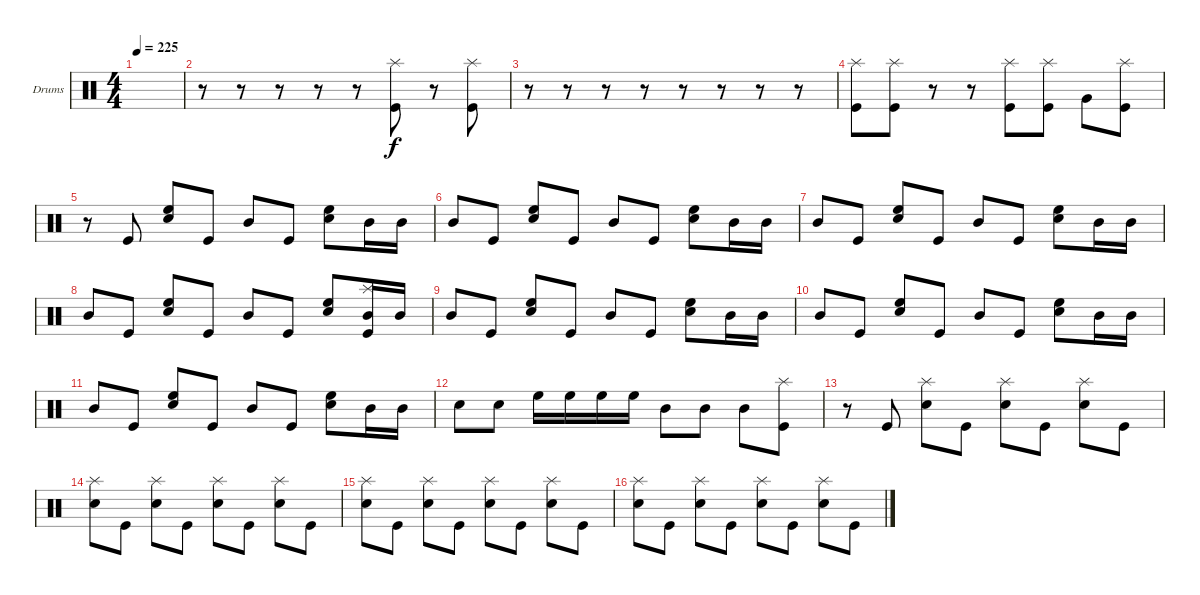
\bracketExtendMode groupsimilarinstruments
\firstSystemTrackNameOrientation horizontal
\otherSystemsTrackNameOrientation horizontal
\track ("Drumkit" "Drums") {instrument percussion}
\staff {score}
\articulation defaults
\ts (4 4)
\tempo 225
\clef neutral
\ks c
|
r.8 r.8 r.8 r.8 r.8 ("Kick (hit)" "Splash (hit)").8 r.8 ("Kick (hit)" "Splash (hit)").8 |
r.8 r.8 r.8 r.8 r.8 r.8 r.8 r.8 |
("Kick (hit)" "Splash (hit)").8 ("Kick (hit)" "Splash (hit)").8 r.8 r.8 ("Kick (hit)" "Splash (hit)").8 ("Kick (hit)" "Splash (hit)").8 "Very Low Tom (hit)".8 ("Kick (hit)" "Splash (hit)").8 |
r.8 "Kick (hit)".8 ("Snare (hit) 2" "High Floor Tom (hit)").8 "Kick (hit)".8 "Mid Tom (hit)".8 "Kick (hit)".8 ("Snare (hit) 2" "High Floor Tom (hit)").8 "Mid Tom (hit)".16 "Mid Tom (hit)".16 |
"Mid Tom (hit)".8 "Kick (hit)".8 ("Snare (hit) 2" "High Floor Tom (hit)").8 "Kick (hit)".8 "Mid Tom (hit)".8 "Kick (hit)".8 ("Snare (hit) 2" "High Floor Tom (hit)").8 "Mid Tom (hit)".16 "Mid Tom (hit)".16 |
"Mid Tom (hit)".8 "Kick (hit)".8 ("Snare (hit) 2" "High Floor Tom (hit)").8 "Kick (hit)".8 "Mid Tom (hit)".8 "Kick (hit)".8 ("Snare (hit) 2" "High Floor Tom (hit)").8 "Mid Tom (hit)".16 "Mid Tom (hit)".16 |
"Mid Tom (hit)".8 "Kick (hit)".8 ("Snare (hit) 2" "High Floor Tom (hit)").8 "Kick (hit)".8 "Mid Tom (hit)".8 "Kick (hit)".8 ("Snare (hit) 2" "High Floor Tom (hit)").8 ("Mid Tom (hit)" "Kick (hit)" "Splash (hit)").16 "Mid Tom (hit)".16 |
"Mid Tom (hit)".8 "Kick (hit)".8 ("Snare (hit) 2" "High Floor Tom (hit)").8 "Kick (hit)".8 "Mid Tom (hit)".8 "Kick (hit)".8 ("Snare (hit) 2" "High Floor Tom (hit)").8 "Mid Tom (hit)".16 "Mid Tom (hit)".16 |
"Mid Tom (hit)".8 "Kick (hit)".8 ("Snare (hit) 2" "High Floor Tom (hit)").8 "Kick (hit)".8 "Mid Tom (hit)".8 "Kick (hit)".8 ("Snare (hit) 2" "High Floor Tom (hit)").8 "Mid Tom (hit)".16 "Mid Tom (hit)".16 |
"Mid Tom (hit)".8 "Kick (hit)".8 ("Snare (hit) 2" "High Floor Tom (hit)").8 "Kick (hit)".8 "Mid Tom (hit)".8 "Kick (hit)".8 ("Snare (hit) 2" "High Floor Tom (hit)").8 "Mid Tom (hit)".16 "Mid Tom (hit)".16 |
"Snare (hit) 2".8 "Snare (hit) 2".8 "High Floor Tom (hit)".16 "High Floor Tom (hit)".16 "High Floor Tom (hit)".16 "High Floor Tom (hit)".16 "Mid Tom (hit)".8 "Mid Tom (hit)".8 "Mid Tom (hit)".8 ("Kick (hit)" "Splash (hit)").8 |
r.8 "Kick (hit)".8 ("Snare (hit) 2" "Splash (hit)").8 "Kick (hit)".8 ("Snare (hit) 2" "Splash (hit)").8 "Kick (hit)".8 ("Snare (hit) 2" "Splash (hit)").8 "Kick (hit)".8 |
("Snare (hit) 2" "Splash (hit)").8 "Kick (hit)".8 ("Snare (hit) 2" "Splash (hit)").8 "Kick (hit)".8 ("Snare (hit) 2" "Splash (hit)").8 "Kick (hit)".8 ("Snare (hit) 2" "Splash (hit)").8 "Kick (hit)".8 |
("Snare (hit) 2" "Splash (hit)").8 "Kick (hit)".8 ("Snare (hit) 2" "Splash (hit)").8 "Kick (hit)".8 ("Snare (hit) 2" "Splash (hit)").8 "Kick (hit)".8 ("Snare (hit) 2" "Splash (hit)").8 "Kick (hit)".8 |
("Snare (hit) 2" "Splash (hit)").8 "Kick (hit)".8 ("Snare (hit) 2" "Splash (hit)").8 "Kick (hit)".8 ("Snare (hit) 2" "Splash (hit)").8 "Kick (hit)".8 ("Snare (hit) 2" "Splash (hit)").8 "Kick (hit)".8
